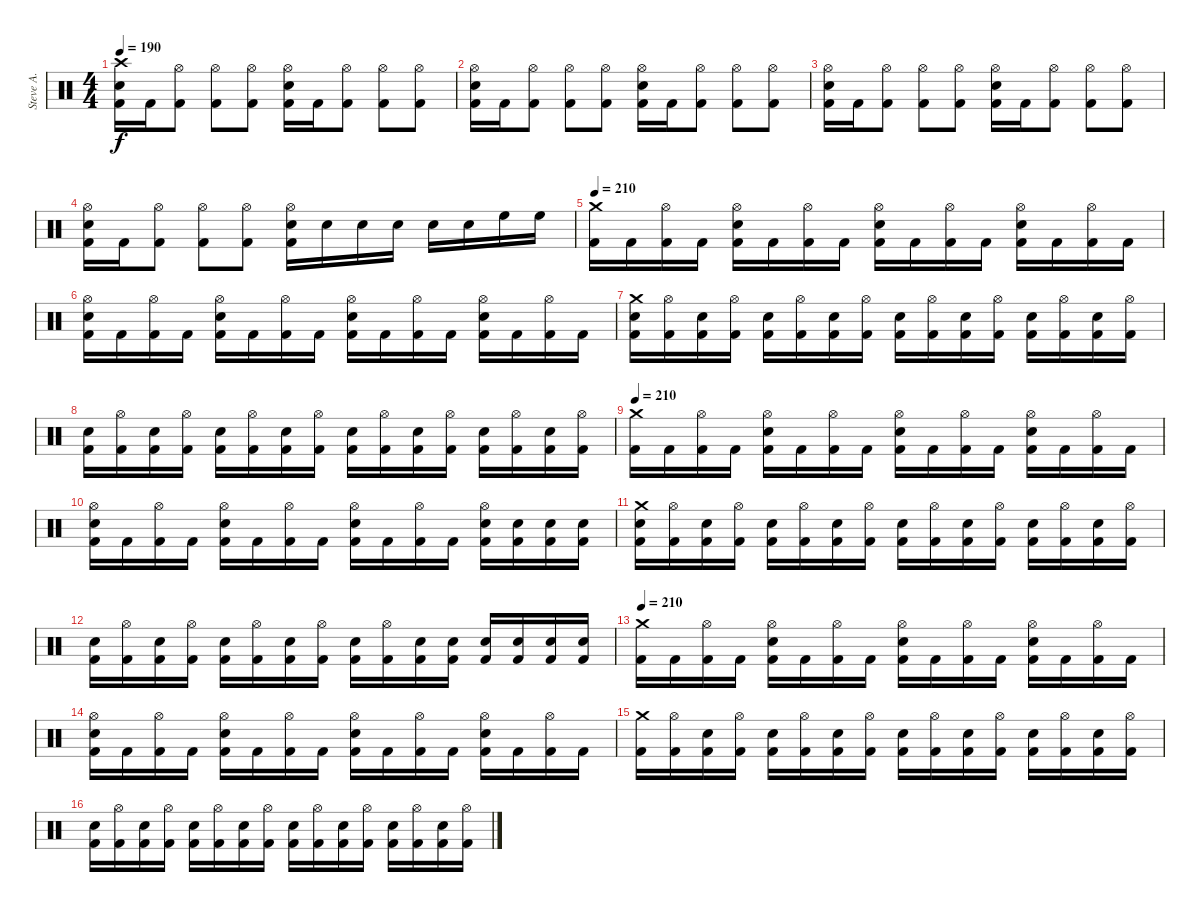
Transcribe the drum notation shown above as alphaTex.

\track ("Steve A." "Steve A.") {instrument percussion}
\staff {score}
\articulation defaults
\ts (4 4)
\tempo 190
\clef neutral
\ks c
("Kick (hit) 2" "Electric Snare (hit)" "Crash high (hit)").16{dy f} "Kick (hit) 2".16 ("Kick (hit) 2" "Hi-Hat (open)").8 ("Kick (hit) 2" "Hi-Hat (open)").8 ("Kick (hit) 2" "Hi-Hat (open)").8 ("Kick (hit) 2" "Hi-Hat (open)" "Electric Snare (hit)").16 "Kick (hit) 2".16 ("Kick (hit) 2" "Hi-Hat (open)").8 ("Kick (hit) 2" "Hi-Hat (open)").8 ("Kick (hit) 2" "Hi-Hat (open)").8 |
("Kick (hit) 2" "Hi-Hat (open)" "Electric Snare (hit)").16 "Kick (hit) 2".16 ("Kick (hit) 2" "Hi-Hat (open)").8 ("Kick (hit) 2" "Hi-Hat (open)").8 ("Kick (hit) 2" "Hi-Hat (open)").8 ("Kick (hit) 2" "Hi-Hat (open)" "Electric Snare (hit)").16 "Kick (hit) 2".16 ("Kick (hit) 2" "Hi-Hat (open)").8 ("Kick (hit) 2" "Hi-Hat (open)").8 ("Kick (hit) 2" "Hi-Hat (open)").8 |
("Kick (hit) 2" "Hi-Hat (open)" "Electric Snare (hit)").16 "Kick (hit) 2".16 ("Kick (hit) 2" "Hi-Hat (open)").8 ("Kick (hit) 2" "Hi-Hat (open)").8 ("Kick (hit) 2" "Hi-Hat (open)").8 ("Kick (hit) 2" "Hi-Hat (open)" "Electric Snare (hit)").16 "Kick (hit) 2".16 ("Kick (hit) 2" "Hi-Hat (open)").8 ("Kick (hit) 2" "Hi-Hat (open)").8 ("Kick (hit) 2" "Hi-Hat (open)").8 |
("Kick (hit) 2" "Hi-Hat (open)" "Electric Snare (hit)").16 "Kick (hit) 2".16 ("Kick (hit) 2" "Hi-Hat (open)").8 ("Kick (hit) 2" "Hi-Hat (open)").8 ("Kick (hit) 2" "Hi-Hat (open)").8 ("Kick (hit) 2" "Hi-Hat (open)" "Electric Snare (hit)").16 "Electric Snare (hit)".16 "Electric Snare (hit)".16 "Electric Snare (hit)".16 "Electric Snare (hit)".16 "Electric Snare (hit)".16 "High Floor Tom (hit)".16 "High Floor Tom (hit)".16 |
\tempo 210
("Kick (hit) 2" "Crash medium (hit)").16 "Kick (hit) 2".16 ("Kick (hit) 2" "Hi-Hat (open)").16 "Kick (hit) 2".16 ("Kick (hit) 2" "Hi-Hat (open)" "Electric Snare (hit)").16 "Kick (hit) 2".16 ("Kick (hit) 2" "Hi-Hat (open)").16 "Kick (hit) 2".16 ("Kick (hit) 2" "Hi-Hat (open)" "Electric Snare (hit)").16 "Kick (hit) 2".16 ("Kick (hit) 2" "Hi-Hat (open)").16 "Kick (hit) 2".16 ("Kick (hit) 2" "Hi-Hat (open)" "Electric Snare (hit)").16 "Kick (hit) 2".16 ("Kick (hit) 2" "Hi-Hat (open)").16 "Kick (hit) 2".16 |
("Kick (hit) 2" "Hi-Hat (open)" "Electric Snare (hit)").16 "Kick (hit) 2".16 ("Kick (hit) 2" "Hi-Hat (open)").16 "Kick (hit) 2".16 ("Kick (hit) 2" "Hi-Hat (open)" "Electric Snare (hit)").16 "Kick (hit) 2".16 ("Kick (hit) 2" "Hi-Hat (open)").16 "Kick (hit) 2".16 ("Kick (hit) 2" "Hi-Hat (open)" "Electric Snare (hit)").16 "Kick (hit) 2".16 ("Kick (hit) 2" "Hi-Hat (open)").16 "Kick (hit) 2".16 ("Kick (hit) 2" "Hi-Hat (open)" "Electric Snare (hit)").16 "Kick (hit) 2".16 ("Kick (hit) 2" "Hi-Hat (open)").16 "Kick (hit) 2".16 |
("Kick (hit) 2" "Electric Snare (hit)" "Crash medium (hit)").16 ("Kick (hit) 2" "Hi-Hat (open)").16 ("Kick (hit) 2" "Electric Snare (hit)").16 ("Kick (hit) 2" "Hi-Hat (open)").16 ("Kick (hit) 2" "Electric Snare (hit)").16 ("Kick (hit) 2" "Hi-Hat (open)").16 ("Kick (hit) 2" "Electric Snare (hit)").16 ("Kick (hit) 2" "Hi-Hat (open)").16 ("Kick (hit) 2" "Electric Snare (hit)").16 ("Kick (hit) 2" "Hi-Hat (open)").16 ("Kick (hit) 2" "Electric Snare (hit)").16 ("Kick (hit) 2" "Hi-Hat (open)").16 ("Kick (hit) 2" "Electric Snare (hit)").16 ("Kick (hit) 2" "Hi-Hat (open)").16 ("Kick (hit) 2" "Electric Snare (hit)").16 ("Kick (hit) 2" "Hi-Hat (open)").16 |
("Kick (hit) 2" "Electric Snare (hit)").16 ("Kick (hit) 2" "Hi-Hat (open)").16 ("Kick (hit) 2" "Electric Snare (hit)").16 ("Kick (hit) 2" "Hi-Hat (open)").16 ("Kick (hit) 2" "Electric Snare (hit)").16 ("Kick (hit) 2" "Hi-Hat (open)").16 ("Kick (hit) 2" "Electric Snare (hit)").16 ("Kick (hit) 2" "Hi-Hat (open)").16 ("Kick (hit) 2" "Electric Snare (hit)").16 ("Kick (hit) 2" "Hi-Hat (open)").16 ("Kick (hit) 2" "Electric Snare (hit)").16 ("Kick (hit) 2" "Hi-Hat (open)").16 ("Kick (hit) 2" "Electric Snare (hit)").16 ("Kick (hit) 2" "Hi-Hat (open)").16 ("Kick (hit) 2" "Electric Snare (hit)").16 ("Kick (hit) 2" "Hi-Hat (open)").16 |
\tempo 210
("Kick (hit) 2" "Crash medium (hit)").16 "Kick (hit) 2".16 ("Kick (hit) 2" "Hi-Hat (open)").16 "Kick (hit) 2".16 ("Kick (hit) 2" "Hi-Hat (open)" "Electric Snare (hit)").16 "Kick (hit) 2".16 ("Kick (hit) 2" "Hi-Hat (open)").16 "Kick (hit) 2".16 ("Kick (hit) 2" "Hi-Hat (open)" "Electric Snare (hit)").16 "Kick (hit) 2".16 ("Kick (hit) 2" "Hi-Hat (open)").16 "Kick (hit) 2".16 ("Kick (hit) 2" "Hi-Hat (open)" "Electric Snare (hit)").16 "Kick (hit) 2".16 ("Kick (hit) 2" "Hi-Hat (open)").16 "Kick (hit) 2".16 |
("Kick (hit) 2" "Hi-Hat (open)" "Electric Snare (hit)").16 "Kick (hit) 2".16 ("Kick (hit) 2" "Hi-Hat (open)").16 "Kick (hit) 2".16 ("Kick (hit) 2" "Hi-Hat (open)" "Electric Snare (hit)").16 "Kick (hit) 2".16 ("Kick (hit) 2" "Hi-Hat (open)").16 "Kick (hit) 2".16 ("Kick (hit) 2" "Hi-Hat (open)" "Electric Snare (hit)").16 "Kick (hit) 2".16 ("Kick (hit) 2" "Hi-Hat (open)").16 "Kick (hit) 2".16 ("Kick (hit) 2" "Hi-Hat (open)" "Electric Snare (hit)").16 ("Kick (hit) 2" "Electric Snare (hit)").16 ("Kick (hit) 2" "Electric Snare (hit)").16 ("Kick (hit) 2" "Electric Snare (hit)").16 |
("Kick (hit) 2" "Electric Snare (hit)" "Crash medium (hit)").16 ("Kick (hit) 2" "Hi-Hat (open)").16 ("Kick (hit) 2" "Electric Snare (hit)").16 ("Kick (hit) 2" "Hi-Hat (open)").16 ("Kick (hit) 2" "Electric Snare (hit)").16 ("Kick (hit) 2" "Hi-Hat (open)").16 ("Kick (hit) 2" "Electric Snare (hit)").16 ("Kick (hit) 2" "Hi-Hat (open)").16 ("Kick (hit) 2" "Electric Snare (hit)").16 ("Kick (hit) 2" "Hi-Hat (open)").16 ("Kick (hit) 2" "Electric Snare (hit)").16 ("Kick (hit) 2" "Hi-Hat (open)").16 ("Kick (hit) 2" "Electric Snare (hit)").16 ("Kick (hit) 2" "Hi-Hat (open)").16 ("Kick (hit) 2" "Electric Snare (hit)").16 ("Kick (hit) 2" "Hi-Hat (open)").16 |
("Kick (hit) 2" "Electric Snare (hit)").16 ("Kick (hit) 2" "Hi-Hat (open)").16 ("Kick (hit) 2" "Electric Snare (hit)").16 ("Kick (hit) 2" "Hi-Hat (open)").16 ("Kick (hit) 2" "Electric Snare (hit)").16 ("Kick (hit) 2" "Hi-Hat (open)").16 ("Kick (hit) 2" "Electric Snare (hit)").16 ("Kick (hit) 2" "Hi-Hat (open)").16 ("Kick (hit) 2" "Electric Snare (hit)").16 ("Kick (hit) 2" "Hi-Hat (open)").16 ("Kick (hit) 2" "Electric Snare (hit)").16 ("Kick (hit) 2" "Electric Snare (hit)").16 ("Kick (hit) 2" "Electric Snare (hit)").16 ("Kick (hit) 2" "Electric Snare (hit)").16 ("Kick (hit) 2" "Electric Snare (hit)").16 ("Kick (hit) 2" "Electric Snare (hit)").16 |
\tempo 210
("Kick (hit) 2" "Crash medium (hit)").16 "Kick (hit) 2".16 ("Kick (hit) 2" "Hi-Hat (open)").16 "Kick (hit) 2".16 ("Kick (hit) 2" "Hi-Hat (open)" "Electric Snare (hit)").16 "Kick (hit) 2".16 ("Kick (hit) 2" "Hi-Hat (open)").16 "Kick (hit) 2".16 ("Kick (hit) 2" "Hi-Hat (open)" "Electric Snare (hit)").16 "Kick (hit) 2".16 ("Kick (hit) 2" "Hi-Hat (open)").16 "Kick (hit) 2".16 ("Kick (hit) 2" "Hi-Hat (open)" "Electric Snare (hit)").16 "Kick (hit) 2".16 ("Kick (hit) 2" "Hi-Hat (open)").16 "Kick (hit) 2".16 |
("Kick (hit) 2" "Hi-Hat (open)" "Electric Snare (hit)").16 "Kick (hit) 2".16 ("Kick (hit) 2" "Hi-Hat (open)").16 "Kick (hit) 2".16 ("Kick (hit) 2" "Hi-Hat (open)" "Electric Snare (hit)").16 "Kick (hit) 2".16 ("Kick (hit) 2" "Hi-Hat (open)").16 "Kick (hit) 2".16 ("Kick (hit) 2" "Hi-Hat (open)" "Electric Snare (hit)").16 "Kick (hit) 2".16 ("Kick (hit) 2" "Hi-Hat (open)").16 "Kick (hit) 2".16 ("Kick (hit) 2" "Hi-Hat (open)" "Electric Snare (hit)").16 "Kick (hit) 2".16 ("Kick (hit) 2" "Hi-Hat (open)").16 "Kick (hit) 2".16 |
("Kick (hit) 2" "Crash medium (hit)").16 ("Kick (hit) 2" "Hi-Hat (open)").16 ("Kick (hit) 2" "Electric Snare (hit)").16 ("Kick (hit) 2" "Hi-Hat (open)").16 ("Kick (hit) 2" "Electric Snare (hit)").16 ("Kick (hit) 2" "Hi-Hat (open)").16 ("Kick (hit) 2" "Electric Snare (hit)").16 ("Kick (hit) 2" "Hi-Hat (open)").16 ("Kick (hit) 2" "Electric Snare (hit)").16 ("Kick (hit) 2" "Hi-Hat (open)").16 ("Kick (hit) 2" "Electric Snare (hit)").16 ("Kick (hit) 2" "Hi-Hat (open)").16 ("Kick (hit) 2" "Electric Snare (hit)").16 ("Kick (hit) 2" "Hi-Hat (open)").16 ("Kick (hit) 2" "Electric Snare (hit)").16 ("Kick (hit) 2" "Hi-Hat (open)").16 |
("Kick (hit) 2" "Electric Snare (hit)").16 ("Kick (hit) 2" "Hi-Hat (open)").16 ("Kick (hit) 2" "Electric Snare (hit)").16 ("Kick (hit) 2" "Hi-Hat (open)").16 ("Kick (hit) 2" "Electric Snare (hit)").16 ("Kick (hit) 2" "Hi-Hat (open)").16 ("Kick (hit) 2" "Electric Snare (hit)").16 ("Kick (hit) 2" "Hi-Hat (open)").16 ("Kick (hit) 2" "Electric Snare (hit)").16 ("Kick (hit) 2" "Hi-Hat (open)").16 ("Kick (hit) 2" "Electric Snare (hit)").16 ("Kick (hit) 2" "Hi-Hat (open)").16 ("Kick (hit) 2" "Electric Snare (hit)").16 ("Kick (hit) 2" "Hi-Hat (open)").16 ("Kick (hit) 2" "Electric Snare (hit)").16 ("Kick (hit) 2" "Hi-Hat (open)").16
